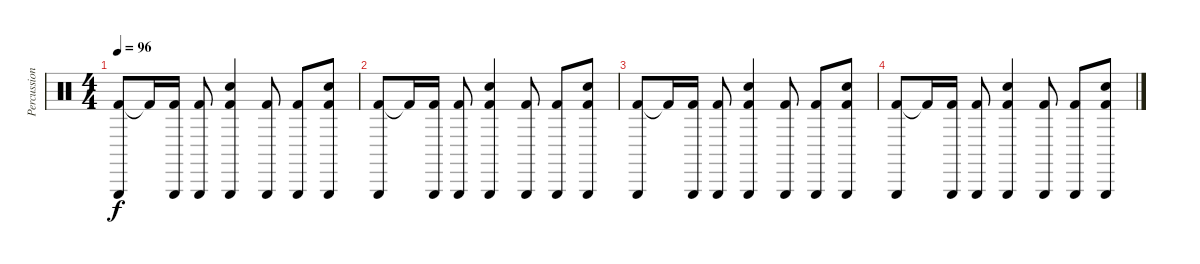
\track ("Percussion" "Percussion") {instrument percussion}
\staff {score}
\articulation defaults
\ts (4 4)
\tempo 96
\clef neutral
\ks c
("Kick (hit) 2" "Triangle (hit)").8{dy f} "Kick (hit) 2"{t}.16 ("Kick (hit) 2" "Triangle (hit)").16 ("Kick (hit) 2" "Triangle (hit)").8 ("Kick (hit) 2" "Snare (hit) 2" "Triangle (hit)").4 ("Kick (hit) 2" "Triangle (hit)").8 ("Kick (hit) 2" "Triangle (hit)").8 ("Kick (hit) 2" "Snare (hit) 2" "Triangle (hit)").8 |
("Kick (hit) 2" "Triangle (hit)").8 "Kick (hit) 2"{t}.16 ("Kick (hit) 2" "Triangle (hit)").16 ("Kick (hit) 2" "Triangle (hit)").8 ("Kick (hit) 2" "Snare (hit) 2" "Triangle (hit)").4 ("Kick (hit) 2" "Triangle (hit)").8 ("Kick (hit) 2" "Triangle (hit)").8 ("Kick (hit) 2" "Snare (hit) 2" "Triangle (hit)").8 |
("Kick (hit) 2" "Triangle (hit)").8 "Kick (hit) 2"{t}.16 ("Kick (hit) 2" "Triangle (hit)").16 ("Kick (hit) 2" "Triangle (hit)").8 ("Kick (hit) 2" "Snare (hit) 2" "Triangle (hit)").4 ("Kick (hit) 2" "Triangle (hit)").8 ("Kick (hit) 2" "Triangle (hit)").8 ("Kick (hit) 2" "Snare (hit) 2" "Triangle (hit)").8 |
("Kick (hit) 2" "Triangle (hit)").8 "Kick (hit) 2"{t}.16 ("Kick (hit) 2" "Triangle (hit)").16 ("Kick (hit) 2" "Triangle (hit)").8 ("Kick (hit) 2" "Snare (hit) 2" "Triangle (hit)").4 ("Kick (hit) 2" "Triangle (hit)").8 ("Kick (hit) 2" "Triangle (hit)").8 ("Kick (hit) 2" "Snare (hit) 2" "Triangle (hit)").8
